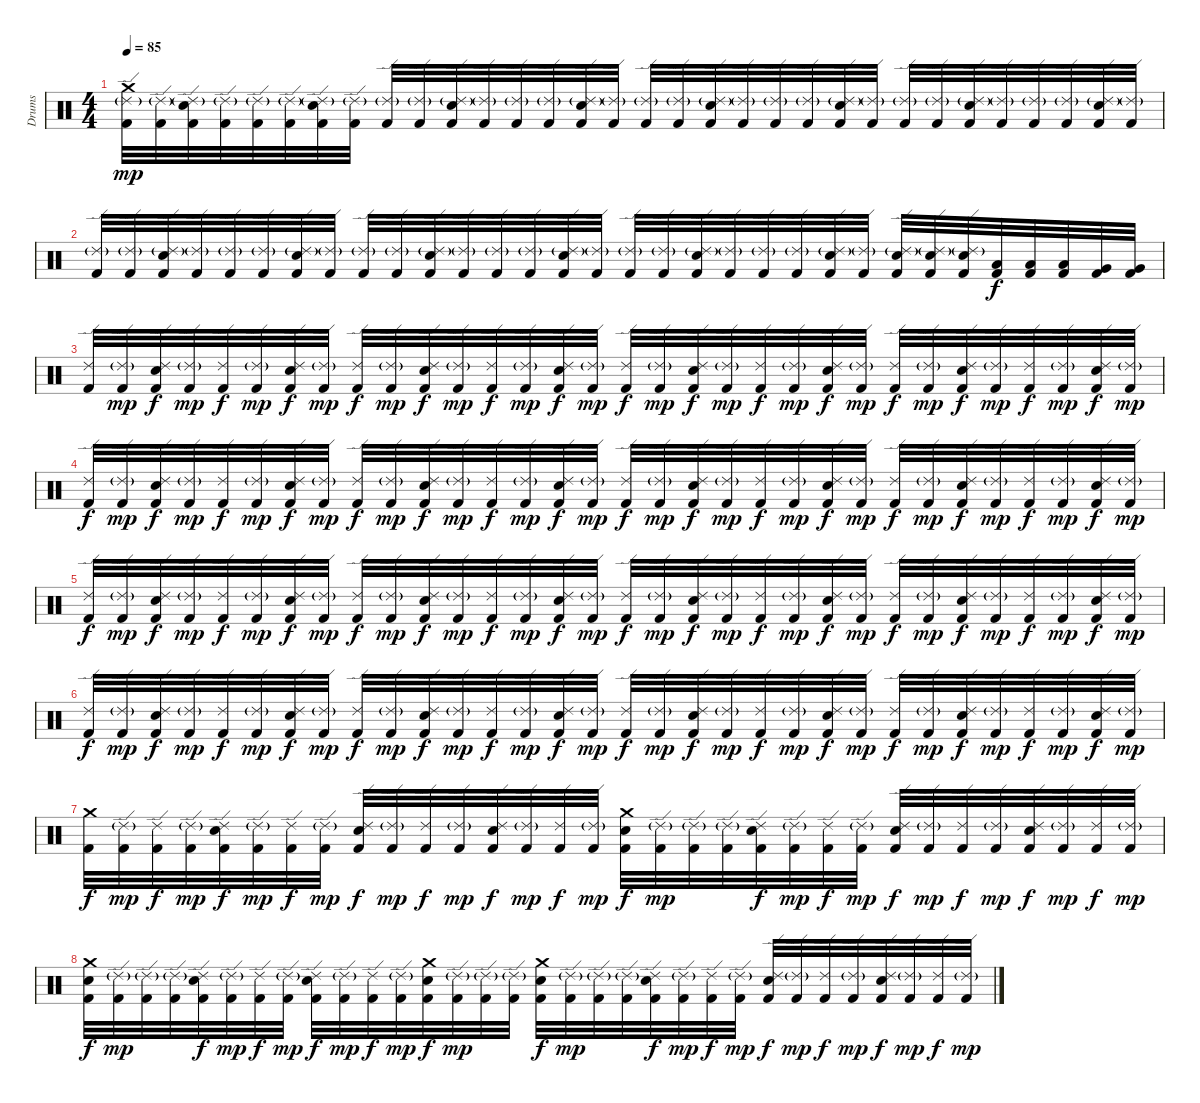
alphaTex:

\track ("Drums" "Drums") {instrument percussion}
\staff {score}
\articulation defaults
\ts (4 4)
\tempo 85
\clef neutral
\ks c
("Crash medium (hit)" "Ride (edge) 2"{g} "Kick (hit) 2").32{dy mp} ("Ride (edge) 2"{g} "Kick (hit) 2").32 ("Snare (hit) 2" "Ride (edge) 2"{g} "Kick (hit) 2").32 ("Ride (edge) 2"{g} "Kick (hit) 2").32 ("Ride (edge) 2"{g} "Kick (hit) 2").32 ("Ride (edge) 2"{g} "Kick (hit) 2").32 ("Snare (hit) 2" "Ride (edge) 2"{g} "Kick (hit) 2").32 ("Ride (edge) 2"{g} "Kick (hit) 2").32 ("Ride (edge) 2"{g} "Kick (hit) 2").32 ("Ride (edge) 2"{g} "Kick (hit) 2").32 ("Snare (hit) 2" "Ride (edge) 2"{g} "Kick (hit) 2").32 ("Ride (edge) 2"{g} "Kick (hit) 2").32 ("Ride (edge) 2"{g} "Kick (hit) 2").32 ("Ride (edge) 2"{g} "Kick (hit) 2").32 ("Snare (hit) 2" "Ride (edge) 2"{g} "Kick (hit) 2").32 ("Ride (edge) 2"{g} "Kick (hit) 2").32 ("Ride (edge) 2"{g} "Kick (hit) 2").32 ("Ride (edge) 2"{g} "Kick (hit) 2").32 ("Snare (hit) 2" "Ride (edge) 2"{g} "Kick (hit) 2").32 ("Ride (edge) 2"{g} "Kick (hit) 2").32 ("Ride (edge) 2"{g} "Kick (hit) 2").32 ("Ride (edge) 2"{g} "Kick (hit) 2").32 ("Snare (hit) 2" "Ride (edge) 2"{g} "Kick (hit) 2").32 ("Ride (edge) 2"{g} "Kick (hit) 2").32 ("Ride (edge) 2"{g} "Kick (hit) 2").32 ("Ride (edge) 2"{g} "Kick (hit) 2").32 ("Snare (hit) 2" "Ride (edge) 2"{g} "Kick (hit) 2").32 ("Ride (edge) 2"{g} "Kick (hit) 2").32 ("Ride (edge) 2"{g} "Kick (hit) 2").32 ("Ride (edge) 2"{g} "Kick (hit) 2").32 ("Snare (hit) 2" "Ride (edge) 2"{g} "Kick (hit) 2").32 ("Ride (edge) 2"{g} "Kick (hit) 2").32 |
("Ride (edge) 2"{g} "Kick (hit) 2").32 ("Ride (edge) 2"{g} "Kick (hit) 2").32 ("Snare (hit) 2" "Ride (edge) 2"{g} "Kick (hit) 2").32 ("Ride (edge) 2"{g} "Kick (hit) 2").32 ("Ride (edge) 2"{g} "Kick (hit) 2").32 ("Ride (edge) 2"{g} "Kick (hit) 2").32 ("Snare (hit) 2" "Ride (edge) 2"{g} "Kick (hit) 2").32 ("Ride (edge) 2"{g} "Kick (hit) 2").32 ("Ride (edge) 2"{g} "Kick (hit) 2").32 ("Ride (edge) 2"{g} "Kick (hit) 2").32 ("Snare (hit) 2" "Ride (edge) 2"{g} "Kick (hit) 2").32 ("Ride (edge) 2"{g} "Kick (hit) 2").32 ("Ride (edge) 2"{g} "Kick (hit) 2").32 ("Ride (edge) 2"{g} "Kick (hit) 2").32 ("Snare (hit) 2" "Ride (edge) 2"{g} "Kick (hit) 2").32 ("Ride (edge) 2"{g} "Kick (hit) 2").32 ("Ride (edge) 2"{g} "Kick (hit) 2").32 ("Ride (edge) 2"{g} "Kick (hit) 2").32 ("Snare (hit) 2" "Ride (edge) 2"{g} "Kick (hit) 2").32 ("Ride (edge) 2"{g} "Kick (hit) 2").32 ("Ride (edge) 2"{g} "Kick (hit) 2").32 ("Ride (edge) 2"{g} "Kick (hit) 2").32 ("Snare (hit) 2" "Ride (edge) 2"{g} "Kick (hit) 2").32 ("Ride (edge) 2"{g} "Kick (hit) 2").32 ("Snare (hit) 2" "Ride (edge) 2"{g} "Kick (hit) 2").32 ("Snare (hit) 2" "Ride (edge) 2"{g} "Kick (hit) 2").32 ("Snare (hit) 2" "Ride (edge) 2"{g} "Kick (hit) 2").32 ("Low Tom (hit)" "Kick (hit) 2").32{dy f} ("Low Tom (hit)" "Kick (hit) 2").32 ("Low Tom (hit)" "Kick (hit) 2").32 ("Very Low Tom (hit)" "Kick (hit) 2").32 ("Very Low Tom (hit)" "Kick (hit) 2").32 |
("Ride (edge) 2" "Kick (hit) 2").32 ("Ride (edge) 2"{g} "Kick (hit) 2").32{dy mp} ("Snare (hit) 2" "Ride (edge) 2" "Kick (hit) 2").32{dy f} ("Ride (edge) 2"{g} "Kick (hit) 2").32{dy mp} ("Ride (edge) 2" "Kick (hit) 2").32{dy f} ("Ride (edge) 2"{g} "Kick (hit) 2").32{dy mp} ("Snare (hit) 2" "Ride (edge) 2" "Kick (hit) 2").32{dy f} ("Ride (edge) 2"{g} "Kick (hit) 2").32{dy mp} ("Ride (edge) 2" "Kick (hit) 2").32{dy f} ("Ride (edge) 2"{g} "Kick (hit) 2").32{dy mp} ("Snare (hit) 2" "Ride (edge) 2" "Kick (hit) 2").32{dy f} ("Ride (edge) 2"{g} "Kick (hit) 2").32{dy mp} ("Ride (edge) 2" "Kick (hit) 2").32{dy f} ("Ride (edge) 2"{g} "Kick (hit) 2").32{dy mp} ("Snare (hit) 2" "Ride (edge) 2" "Kick (hit) 2").32{dy f} ("Ride (edge) 2"{g} "Kick (hit) 2").32{dy mp} ("Ride (edge) 2" "Kick (hit) 2").32{dy f} ("Ride (edge) 2"{g} "Kick (hit) 2").32{dy mp} ("Snare (hit) 2" "Ride (edge) 2" "Kick (hit) 2").32{dy f} ("Ride (edge) 2"{g} "Kick (hit) 2").32{dy mp} ("Ride (edge) 2" "Kick (hit) 2").32{dy f} ("Ride (edge) 2"{g} "Kick (hit) 2").32{dy mp} ("Snare (hit) 2" "Ride (edge) 2" "Kick (hit) 2").32{dy f} ("Ride (edge) 2"{g} "Kick (hit) 2").32{dy mp} ("Ride (edge) 2" "Kick (hit) 2").32{dy f} ("Ride (edge) 2"{g} "Kick (hit) 2").32{dy mp} ("Snare (hit) 2" "Ride (edge) 2" "Kick (hit) 2").32{dy f} ("Ride (edge) 2"{g} "Kick (hit) 2").32{dy mp} ("Ride (edge) 2" "Kick (hit) 2").32{dy f} ("Ride (edge) 2"{g} "Kick (hit) 2").32{dy mp} ("Snare (hit) 2" "Ride (edge) 2" "Kick (hit) 2").32{dy f} ("Ride (edge) 2"{g} "Kick (hit) 2").32{dy mp} |
("Ride (edge) 2" "Kick (hit) 2").32{dy f} ("Ride (edge) 2"{g} "Kick (hit) 2").32{dy mp} ("Snare (hit) 2" "Ride (edge) 2" "Kick (hit) 2").32{dy f} ("Ride (edge) 2"{g} "Kick (hit) 2").32{dy mp} ("Ride (edge) 2" "Kick (hit) 2").32{dy f} ("Ride (edge) 2"{g} "Kick (hit) 2").32{dy mp} ("Snare (hit) 2" "Ride (edge) 2" "Kick (hit) 2").32{dy f} ("Ride (edge) 2"{g} "Kick (hit) 2").32{dy mp} ("Ride (edge) 2" "Kick (hit) 2").32{dy f} ("Ride (edge) 2"{g} "Kick (hit) 2").32{dy mp} ("Snare (hit) 2" "Ride (edge) 2" "Kick (hit) 2").32{dy f} ("Ride (edge) 2"{g} "Kick (hit) 2").32{dy mp} ("Ride (edge) 2" "Kick (hit) 2").32{dy f} ("Ride (edge) 2"{g} "Kick (hit) 2").32{dy mp} ("Snare (hit) 2" "Ride (edge) 2" "Kick (hit) 2").32{dy f} ("Ride (edge) 2"{g} "Kick (hit) 2").32{dy mp} ("Ride (edge) 2" "Kick (hit) 2").32{dy f} ("Ride (edge) 2"{g} "Kick (hit) 2").32{dy mp} ("Snare (hit) 2" "Ride (edge) 2" "Kick (hit) 2").32{dy f} ("Ride (edge) 2"{g} "Kick (hit) 2").32{dy mp} ("Ride (edge) 2" "Kick (hit) 2").32{dy f} ("Ride (edge) 2"{g} "Kick (hit) 2").32{dy mp} ("Snare (hit) 2" "Ride (edge) 2" "Kick (hit) 2").32{dy f} ("Ride (edge) 2"{g} "Kick (hit) 2").32{dy mp} ("Ride (edge) 2" "Kick (hit) 2").32{dy f} ("Ride (edge) 2"{g} "Kick (hit) 2").32{dy mp} ("Snare (hit) 2" "Ride (edge) 2" "Kick (hit) 2").32{dy f} ("Ride (edge) 2"{g} "Kick (hit) 2").32{dy mp} ("Ride (edge) 2" "Kick (hit) 2").32{dy f} ("Ride (edge) 2"{g} "Kick (hit) 2").32{dy mp} ("Snare (hit) 2" "Ride (edge) 2" "Kick (hit) 2").32{dy f} ("Ride (edge) 2"{g} "Kick (hit) 2").32{dy mp} |
("Ride (edge) 2" "Kick (hit) 2").32{dy f} ("Ride (edge) 2"{g} "Kick (hit) 2").32{dy mp} ("Snare (hit) 2" "Ride (edge) 2" "Kick (hit) 2").32{dy f} ("Ride (edge) 2"{g} "Kick (hit) 2").32{dy mp} ("Ride (edge) 2" "Kick (hit) 2").32{dy f} ("Ride (edge) 2"{g} "Kick (hit) 2").32{dy mp} ("Snare (hit) 2" "Ride (edge) 2" "Kick (hit) 2").32{dy f} ("Ride (edge) 2"{g} "Kick (hit) 2").32{dy mp} ("Ride (edge) 2" "Kick (hit) 2").32{dy f} ("Ride (edge) 2"{g} "Kick (hit) 2").32{dy mp} ("Snare (hit) 2" "Ride (edge) 2" "Kick (hit) 2").32{dy f} ("Ride (edge) 2"{g} "Kick (hit) 2").32{dy mp} ("Ride (edge) 2" "Kick (hit) 2").32{dy f} ("Ride (edge) 2"{g} "Kick (hit) 2").32{dy mp} ("Snare (hit) 2" "Ride (edge) 2" "Kick (hit) 2").32{dy f} ("Ride (edge) 2"{g} "Kick (hit) 2").32{dy mp} ("Ride (edge) 2" "Kick (hit) 2").32{dy f} ("Ride (edge) 2"{g} "Kick (hit) 2").32{dy mp} ("Snare (hit) 2" "Ride (edge) 2" "Kick (hit) 2").32{dy f} ("Ride (edge) 2"{g} "Kick (hit) 2").32{dy mp} ("Ride (edge) 2" "Kick (hit) 2").32{dy f} ("Ride (edge) 2"{g} "Kick (hit) 2").32{dy mp} ("Snare (hit) 2" "Ride (edge) 2" "Kick (hit) 2").32{dy f} ("Ride (edge) 2"{g} "Kick (hit) 2").32{dy mp} ("Ride (edge) 2" "Kick (hit) 2").32{dy f} ("Ride (edge) 2"{g} "Kick (hit) 2").32{dy mp} ("Snare (hit) 2" "Ride (edge) 2" "Kick (hit) 2").32{dy f} ("Ride (edge) 2"{g} "Kick (hit) 2").32{dy mp} ("Ride (edge) 2" "Kick (hit) 2").32{dy f} ("Ride (edge) 2"{g} "Kick (hit) 2").32{dy mp} ("Snare (hit) 2" "Ride (edge) 2" "Kick (hit) 2").32{dy f} ("Ride (edge) 2"{g} "Kick (hit) 2").32{dy mp} |
("Ride (edge) 2" "Kick (hit) 2").32{dy f} ("Ride (edge) 2"{g} "Kick (hit) 2").32{dy mp} ("Snare (hit) 2" "Ride (edge) 2" "Kick (hit) 2").32{dy f} ("Ride (edge) 2"{g} "Kick (hit) 2").32{dy mp} ("Ride (edge) 2" "Kick (hit) 2").32{dy f} ("Ride (edge) 2"{g} "Kick (hit) 2").32{dy mp} ("Snare (hit) 2" "Ride (edge) 2" "Kick (hit) 2").32{dy f} ("Ride (edge) 2"{g} "Kick (hit) 2").32{dy mp} ("Ride (edge) 2" "Kick (hit) 2").32{dy f} ("Ride (edge) 2"{g} "Kick (hit) 2").32{dy mp} ("Snare (hit) 2" "Ride (edge) 2" "Kick (hit) 2").32{dy f} ("Ride (edge) 2"{g} "Kick (hit) 2").32{dy mp} ("Ride (edge) 2" "Kick (hit) 2").32{dy f} ("Ride (edge) 2"{g} "Kick (hit) 2").32{dy mp} ("Snare (hit) 2" "Ride (edge) 2" "Kick (hit) 2").32{dy f} ("Ride (edge) 2"{g} "Kick (hit) 2").32{dy mp} ("Ride (edge) 2" "Kick (hit) 2").32{dy f} ("Ride (edge) 2"{g} "Kick (hit) 2").32{dy mp} ("Snare (hit) 2" "Ride (edge) 2" "Kick (hit) 2").32{dy f} ("Ride (edge) 2"{g} "Kick (hit) 2").32{dy mp} ("Ride (edge) 2" "Kick (hit) 2").32{dy f} ("Ride (edge) 2"{g} "Kick (hit) 2").32{dy mp} ("Snare (hit) 2" "Ride (edge) 2" "Kick (hit) 2").32{dy f} ("Ride (edge) 2"{g} "Kick (hit) 2").32{dy mp} ("Ride (edge) 2" "Kick (hit) 2").32{dy f} ("Ride (edge) 2"{g} "Kick (hit) 2").32{dy mp} ("Snare (hit) 2" "Ride (edge) 2" "Kick (hit) 2").32{dy f} ("Ride (edge) 2"{g} "Kick (hit) 2").32{dy mp} ("Ride (edge) 2" "Kick (hit) 2").32{dy f} ("Ride (edge) 2"{g} "Kick (hit) 2").32{dy mp} ("Snare (hit) 2" "Ride (edge) 2" "Kick (hit) 2").32{dy f} ("Ride (edge) 2"{g} "Kick (hit) 2").32{dy mp} |
("Crash medium (hit)" "Kick (hit) 2").32{dy f} ("Ride (edge) 2"{g} "Kick (hit) 2").32{dy mp} ("Ride (edge) 2" "Kick (hit) 2").32{dy f} ("Ride (edge) 2"{g} "Kick (hit) 2").32{dy mp} ("Snare (hit) 2" "Ride (edge) 2" "Kick (hit) 2").32{dy f} ("Ride (edge) 2"{g} "Kick (hit) 2").32{dy mp} ("Ride (edge) 2" "Kick (hit) 2").32{dy f} ("Ride (edge) 2"{g} "Kick (hit) 2").32{dy mp} ("Snare (hit) 2" "Ride (edge) 2" "Kick (hit) 2").32{dy f} ("Ride (edge) 2"{g} "Kick (hit) 2").32{dy mp} ("Ride (edge) 2" "Kick (hit) 2").32{dy f} ("Ride (edge) 2"{g} "Kick (hit) 2").32{dy mp} ("Snare (hit) 2" "Ride (edge) 2" "Kick (hit) 2").32{dy f} ("Ride (edge) 2"{g} "Kick (hit) 2").32{dy mp} ("Ride (edge) 2" "Kick (hit) 2").32{dy f} ("Ride (edge) 2"{g} "Kick (hit) 2").32{dy mp} ("Snare (hit) 2" "Crash medium (hit)" "Kick (hit) 2").32{dy f} ("Ride (edge) 2"{g} "Kick (hit) 2").32{dy mp} ("Ride (edge) 2"{g} "Kick (hit) 2").32 ("Ride (edge) 2"{g} "Kick (hit) 2").32 ("Snare (hit) 2" "Ride (edge) 2" "Kick (hit) 2").32{dy f} ("Ride (edge) 2"{g} "Kick (hit) 2").32{dy mp} ("Ride (edge) 2" "Kick (hit) 2").32{dy f} ("Ride (edge) 2"{g} "Kick (hit) 2").32{dy mp} ("Snare (hit) 2" "Ride (edge) 2" "Kick (hit) 2").32{dy f} ("Ride (edge) 2"{g} "Kick (hit) 2").32{dy mp} ("Ride (edge) 2" "Kick (hit) 2").32{dy f} ("Ride (edge) 2"{g} "Kick (hit) 2").32{dy mp} ("Snare (hit) 2" "Ride (edge) 2" "Kick (hit) 2").32{dy f} ("Ride (edge) 2"{g} "Kick (hit) 2").32{dy mp} ("Ride (edge) 2" "Kick (hit) 2").32{dy f} ("Ride (edge) 2"{g} "Kick (hit) 2").32{dy mp} |
("Snare (hit) 2" "Crash medium (hit)" "Kick (hit) 2").32{dy f} ("Ride (edge) 2"{g} "Kick (hit) 2").32{dy mp} ("Ride (edge) 2"{g} "Kick (hit) 2").32 ("Ride (edge) 2"{g} "Kick (hit) 2").32 ("Snare (hit) 2" "Ride (edge) 2" "Kick (hit) 2").32{dy f} ("Ride (edge) 2"{g} "Kick (hit) 2").32{dy mp} ("Ride (edge) 2" "Kick (hit) 2").32{dy f} ("Ride (edge) 2"{g} "Kick (hit) 2").32{dy mp} ("Snare (hit) 2" "Ride (edge) 2" "Kick (hit) 2").32{dy f} ("Ride (edge) 2"{g} "Kick (hit) 2").32{dy mp} ("Ride (edge) 2" "Kick (hit) 2").32{dy f} ("Ride (edge) 2"{g} "Kick (hit) 2").32{dy mp} ("Snare (hit) 2" "Crash medium (hit)" "Kick (hit) 2").32{dy f} ("Ride (edge) 2"{g} "Kick (hit) 2").32{dy mp} ("Ride (edge) 2"{g} "Kick (hit) 2").32 ("Ride (edge) 2"{g} "Kick (hit) 2").32 ("Snare (hit) 2" "Crash medium (hit)" "Kick (hit) 2").32{dy f} ("Ride (edge) 2"{g} "Kick (hit) 2").32{dy mp} ("Ride (edge) 2"{g} "Kick (hit) 2").32 ("Ride (edge) 2"{g} "Kick (hit) 2").32 ("Snare (hit) 2" "Ride (edge) 2" "Kick (hit) 2").32{dy f} ("Ride (edge) 2"{g} "Kick (hit) 2").32{dy mp} ("Ride (edge) 2" "Kick (hit) 2").32{dy f} ("Ride (edge) 2"{g} "Kick (hit) 2").32{dy mp} ("Snare (hit) 2" "Ride (edge) 2" "Kick (hit) 2").32{dy f} ("Ride (edge) 2"{g} "Kick (hit) 2").32{dy mp} ("Ride (edge) 2" "Kick (hit) 2").32{dy f} ("Ride (edge) 2"{g} "Kick (hit) 2").32{dy mp} ("Snare (hit) 2" "Ride (edge) 2" "Kick (hit) 2").32{dy f} ("Ride (edge) 2"{g} "Kick (hit) 2").32{dy mp} ("Ride (edge) 2" "Kick (hit) 2").32{dy f} ("Ride (edge) 2"{g} "Kick (hit) 2").32{dy mp}
